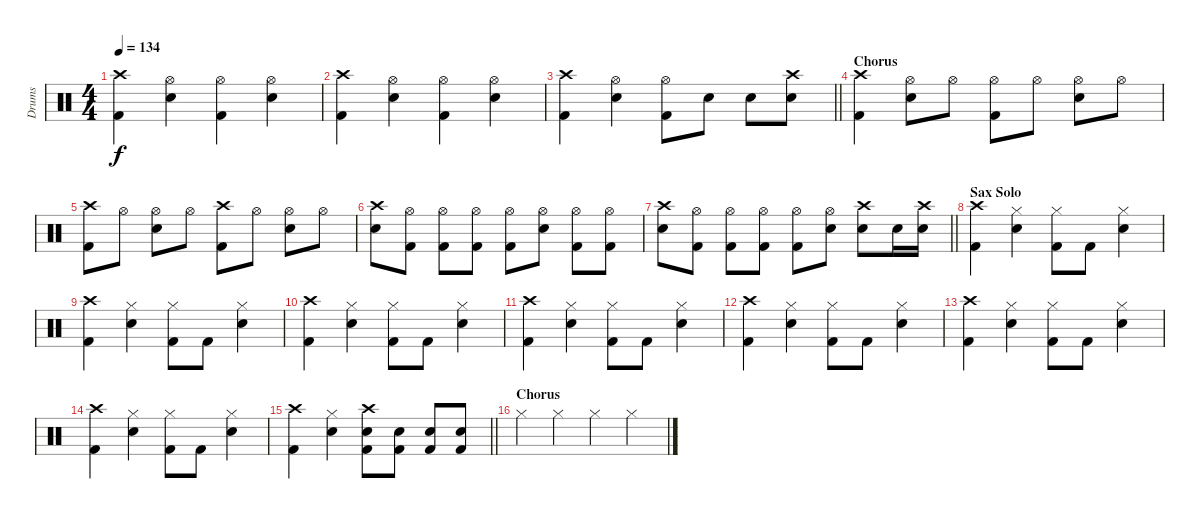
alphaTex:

\track ("Drums" "Drums") {instrument percussion}
\staff {score}
\articulation defaults
\ts (4 4)
\tempo 134
\clef neutral
\ks c
("Crash high (hit)" "Kick (hit) 2").4{dy f} ("Hi-Hat (open)" "Snare (hit) 2").4 ("Hi-Hat (open)" "Kick (hit) 2").4 ("Hi-Hat (open)" "Snare (hit) 2").4 |
("Crash high (hit)" "Kick (hit) 2").4 ("Hi-Hat (open)" "Snare (hit) 2").4 ("Hi-Hat (open)" "Kick (hit) 2").4 ("Hi-Hat (open)" "Snare (hit) 2").4 |
\barLineRight lightlight
("Crash high (hit)" "Kick (hit) 2").4 ("Hi-Hat (open)" "Snare (hit) 2").4 ("Hi-Hat (open)" "Kick (hit) 2").8 "Snare (hit) 2".8 "Snare (hit) 2".8 ("Crash high (hit)" "Snare (hit) 2").8 |
\section ("" "Chorus")
("Crash high (hit)" "Kick (hit) 2").4 ("Hi-Hat (open)" "Snare (hit) 2").8 "Hi-Hat (open)".8 ("Hi-Hat (open)" "Kick (hit) 2").8 "Hi-Hat (open)".8 ("Hi-Hat (open)" "Snare (hit) 2").8 "Hi-Hat (open)".8 |
("Crash high (hit)" "Kick (hit) 2").8 "Hi-Hat (open)".8 ("Hi-Hat (open)" "Snare (hit) 2").8 "Hi-Hat (open)".8 ("Crash high (hit)" "Kick (hit) 2").8 "Hi-Hat (open)".8 ("Hi-Hat (open)" "Snare (hit) 2").8 "Hi-Hat (open)".8 |
("Crash high (hit)" "Snare (hit) 2").8 ("Hi-Hat (open)" "Kick (hit) 2").8 ("Hi-Hat (open)" "Kick (hit) 2").8 ("Hi-Hat (open)" "Kick (hit) 2").8 ("Hi-Hat (open)" "Kick (hit) 2").8 ("Hi-Hat (open)" "Snare (hit) 2").8 ("Hi-Hat (open)" "Kick (hit) 2").8 ("Hi-Hat (open)" "Kick (hit) 2").8 |
\barLineRight lightlight
("Crash high (hit)" "Snare (hit) 2").8 ("Hi-Hat (open)" "Kick (hit) 2").8 ("Hi-Hat (open)" "Kick (hit) 2").8 ("Hi-Hat (open)" "Kick (hit) 2").8 ("Hi-Hat (open)" "Kick (hit) 2").8 ("Hi-Hat (open)" "Snare (hit) 2").8 ("Crash high (hit)" "Snare (hit) 2").8 "Snare (hit) 2".16 ("Crash high (hit)" "Snare (hit) 2").16 |
\section ("" "Sax Solo")
("Crash high (hit)" "Kick (hit) 2").4 ("Hi-Hat (closed)" "Snare (hit) 2").4 ("Hi-Hat (closed)" "Kick (hit) 2").8 "Kick (hit) 2".8 ("Hi-Hat (closed)" "Snare (hit) 2").4 |
("Crash high (hit)" "Kick (hit) 2").4 ("Hi-Hat (closed)" "Snare (hit) 2").4 ("Hi-Hat (closed)" "Kick (hit) 2").8 "Kick (hit) 2".8 ("Hi-Hat (closed)" "Snare (hit) 2").4 |
("Crash high (hit)" "Kick (hit) 2").4 ("Hi-Hat (closed)" "Snare (hit) 2").4 ("Hi-Hat (closed)" "Kick (hit) 2").8 "Kick (hit) 2".8 ("Hi-Hat (closed)" "Snare (hit) 2").4 |
("Crash high (hit)" "Kick (hit) 2").4 ("Hi-Hat (closed)" "Snare (hit) 2").4 ("Hi-Hat (closed)" "Kick (hit) 2").8 "Kick (hit) 2".8 ("Hi-Hat (closed)" "Snare (hit) 2").4 |
("Crash high (hit)" "Kick (hit) 2").4 ("Hi-Hat (closed)" "Snare (hit) 2").4 ("Hi-Hat (closed)" "Kick (hit) 2").8 "Kick (hit) 2".8 ("Hi-Hat (closed)" "Snare (hit) 2").4 |
("Crash high (hit)" "Kick (hit) 2").4 ("Hi-Hat (closed)" "Snare (hit) 2").4 ("Hi-Hat (closed)" "Kick (hit) 2").8 "Kick (hit) 2".8 ("Hi-Hat (closed)" "Snare (hit) 2").4 |
("Crash high (hit)" "Kick (hit) 2").4 ("Hi-Hat (closed)" "Snare (hit) 2").4 ("Hi-Hat (closed)" "Kick (hit) 2").8 "Kick (hit) 2".8 ("Hi-Hat (closed)" "Snare (hit) 2").4 |
\barLineRight lightlight
("Crash high (hit)" "Kick (hit) 2").4 ("Hi-Hat (closed)" "Snare (hit) 2").4 ("Crash high (hit)" "Kick (hit) 2" "Snare (hit) 2").8 ("Kick (hit) 2" "Snare (hit) 2").8 ("Kick (hit) 2" "Snare (hit) 2").8 ("Kick (hit) 2" "Snare (hit) 2").8 |
\section ("" "Chorus")
"Hi-Hat (closed)".4 "Hi-Hat (closed)".4 "Hi-Hat (closed)".4 "Hi-Hat (closed)".4
